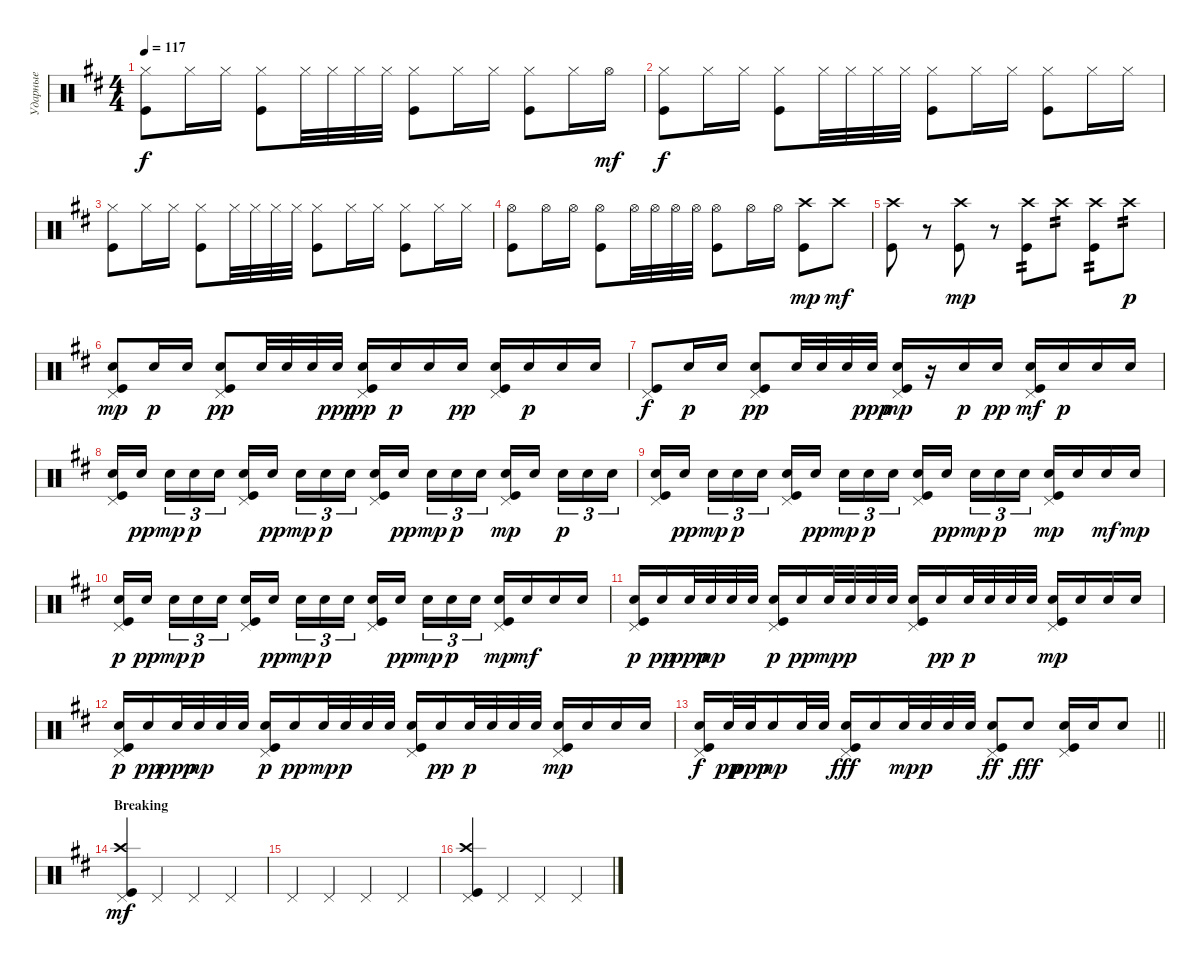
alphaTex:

\track ("Ударные" "Ударные") {instrument percussion}
\staff {score}
\articulation defaults
\ts (4 4)
\tempo 117
\clef neutral
\ks d
("Hi-Hat (closed)" "Kick (hit)").8{dy f} "Hi-Hat (closed)".16 "Hi-Hat (closed)".16 ("Hi-Hat (closed)" "Kick (hit)").8 "Hi-Hat (closed)".32 "Hi-Hat (closed)".32 "Hi-Hat (closed)".32 "Hi-Hat (closed)".32 ("Hi-Hat (closed)" "Kick (hit)").8 "Hi-Hat (closed)".16 "Hi-Hat (closed)".16 ("Hi-Hat (closed)" "Kick (hit)").8 "Hi-Hat (closed)".16 "Hi-Hat (open)".16{dy mf} |
("Hi-Hat (closed)" "Kick (hit)").8{dy f} "Hi-Hat (closed)".16 "Hi-Hat (closed)".16 ("Hi-Hat (closed)" "Kick (hit)").8 "Hi-Hat (closed)".32 "Hi-Hat (closed)".32 "Hi-Hat (closed)".32 "Hi-Hat (closed)".32 ("Hi-Hat (closed)" "Kick (hit)").8 "Hi-Hat (closed)".16 "Hi-Hat (closed)".16 ("Hi-Hat (closed)" "Kick (hit)").8 "Hi-Hat (closed)".16 "Hi-Hat (closed)".16 |
("Hi-Hat (closed)" "Kick (hit)").8 "Hi-Hat (closed)".16 "Hi-Hat (closed)".16 ("Hi-Hat (closed)" "Kick (hit)").8 "Hi-Hat (closed)".32 "Hi-Hat (closed)".32 "Hi-Hat (closed)".32 "Hi-Hat (closed)".32 ("Hi-Hat (closed)" "Kick (hit)").8 "Hi-Hat (closed)".16 "Hi-Hat (closed)".16 ("Hi-Hat (closed)" "Kick (hit)").8 "Hi-Hat (closed)".16 "Hi-Hat (closed)".16 |
("Hi-Hat (open)" "Kick (hit)").8 "Hi-Hat (open)".16 "Hi-Hat (open)".16 ("Kick (hit)" "Hi-Hat (open)").8 "Hi-Hat (open)".32 "Hi-Hat (open)".32 "Hi-Hat (open)".32 "Hi-Hat (open)".32 ("Hi-Hat (open)" "Kick (hit)").8 "Hi-Hat (open)".16 "Hi-Hat (open)".16 ("Crash high (hit)" "Kick (hit)").8{dy mp} "Crash high (hit)".8{dy mf} |
("Crash high (hit)" "Kick (hit)").8 r.8 ("Kick (hit)" "Crash high (hit)").8{dy mp} r.8 ("Kick (hit)" "Crash high (hit)").8{tp 2} "Crash high (hit)".8{tp 2} ("Crash high (hit)" "Kick (hit)").8{tp 2} "Crash high (hit)".8{tp 2 dy p} |
("Kick (hit)" "Pedal Hi-Hat (hit)" "Snare (hit) 2").8{dy mp} "Snare (hit) 2".16{dy p} "Snare (hit) 2".16 ("Kick (hit)" "Pedal Hi-Hat (hit)" "Snare (hit) 2").8{dy pp} "Snare (hit) 2".32 "Snare (hit) 2".32 "Snare (hit) 2".32 "Snare (hit) 2".32{dy ppp} ("Kick (hit)" "Pedal Hi-Hat (hit)" "Snare (hit) 2").16{dy pp} "Snare (hit) 2".16{dy p} "Snare (hit) 2".16 "Snare (hit) 2".16{dy pp} ("Kick (hit)" "Pedal Hi-Hat (hit)" "Snare (hit) 2").16 "Snare (hit) 2".16{dy p} "Snare (hit) 2".16 "Snare (hit) 2".16 |
("Kick (hit)" "Pedal Hi-Hat (hit)").8{dy f} "Snare (hit) 2".16{dy p} "Snare (hit) 2".16 ("Kick (hit)" "Pedal Hi-Hat (hit)" "Snare (hit) 2").8{dy pp} "Snare (hit) 2".32 "Snare (hit) 2".32 "Snare (hit) 2".32 "Snare (hit) 2".32{dy ppp} ("Kick (hit)" "Pedal Hi-Hat (hit)" "Snare (hit) 2").16{dy mp} r.16 "Snare (hit) 2".16{dy p} "Snare (hit) 2".16{dy pp} ("Kick (hit)" "Pedal Hi-Hat (hit)" "Snare (hit) 2").16{dy mf} "Snare (hit) 2".16{dy p} "Snare (hit) 2".16 "Snare (hit) 2".16 |
("Kick (hit)" "Pedal Hi-Hat (hit)" "Snare (hit) 2").16 "Snare (hit) 2".16{dy pp beam splitsecondary} "Snare (hit) 2".16{tu (3 2) dy mp} "Snare (hit) 2".16{tu (3 2) dy p} "Snare (hit) 2".16{tu (3 2)} ("Kick (hit)" "Pedal Hi-Hat (hit)" "Snare (hit) 2").16 "Snare (hit) 2".16{dy pp beam splitsecondary} "Snare (hit) 2".16{tu (3 2) dy mp} "Snare (hit) 2".16{tu (3 2) dy p} "Snare (hit) 2".16{tu (3 2)} ("Kick (hit)" "Pedal Hi-Hat (hit)" "Snare (hit) 2").16 "Snare (hit) 2".16{dy pp beam splitsecondary} "Snare (hit) 2".16{tu (3 2) dy mp} "Snare (hit) 2".16{tu (3 2) dy p} "Snare (hit) 2".16{tu (3 2)} ("Kick (hit)" "Pedal Hi-Hat (hit)" "Snare (hit) 2").16{dy mp} "Snare (hit) 2".16{beam splitsecondary} "Snare (hit) 2".16{tu (3 2) dy p} "Snare (hit) 2".16{tu (3 2)} "Snare (hit) 2".16{tu (3 2)} |
("Kick (hit)" "Pedal Hi-Hat (hit)" "Snare (hit) 2").16 "Snare (hit) 2".16{dy pp beam splitsecondary} "Snare (hit) 2".16{tu (3 2) dy mp} "Snare (hit) 2".16{tu (3 2) dy p} "Snare (hit) 2".16{tu (3 2)} ("Kick (hit)" "Pedal Hi-Hat (hit)" "Snare (hit) 2").16 "Snare (hit) 2".16{dy pp beam splitsecondary} "Snare (hit) 2".16{tu (3 2) dy mp} "Snare (hit) 2".16{tu (3 2) dy p} "Snare (hit) 2".16{tu (3 2)} ("Kick (hit)" "Pedal Hi-Hat (hit)" "Snare (hit) 2").16 "Snare (hit) 2".16{dy pp beam splitsecondary} "Snare (hit) 2".16{tu (3 2) dy mp} "Snare (hit) 2".16{tu (3 2) dy p} "Snare (hit) 2".16{tu (3 2)} ("Kick (hit)" "Pedal Hi-Hat (hit)" "Snare (hit) 2").16{dy mp} "Snare (hit) 2".16 "Snare (hit) 2".16{dy mf} "Snare (hit) 2".16{dy mp} |
("Kick (hit)" "Pedal Hi-Hat (hit)" "Snare (hit) 2").16{dy p} "Snare (hit) 2".16{dy pp beam splitsecondary} "Snare (hit) 2".16{tu (3 2) dy mp} "Snare (hit) 2".16{tu (3 2) dy p} "Snare (hit) 2".16{tu (3 2)} ("Kick (hit)" "Pedal Hi-Hat (hit)" "Snare (hit) 2").16 "Snare (hit) 2".16{dy pp beam splitsecondary} "Snare (hit) 2".16{tu (3 2) dy mp} "Snare (hit) 2".16{tu (3 2) dy p} "Snare (hit) 2".16{tu (3 2)} ("Kick (hit)" "Pedal Hi-Hat (hit)" "Snare (hit) 2").16 "Snare (hit) 2".16{dy pp beam splitsecondary} "Snare (hit) 2".16{tu (3 2) dy mp} "Snare (hit) 2".16{tu (3 2) dy p} "Snare (hit) 2".16{tu (3 2)} ("Kick (hit)" "Pedal Hi-Hat (hit)" "Snare (hit) 2").16{dy mp} "Snare (hit) 2".16{dy mf} "Snare (hit) 2".16 "Snare (hit) 2".16 |
("Kick (hit)" "Pedal Hi-Hat (hit)" "Snare (hit) 2").16{dy p} "Snare (hit) 2".16{dy pp} "Snare (hit) 2".32{dy ppp} "Snare (hit) 2".32{dy mp} "Snare (hit) 2".32 "Snare (hit) 2".32 ("Kick (hit)" "Pedal Hi-Hat (hit)" "Snare (hit) 2").16{dy p} "Snare (hit) 2".16{dy pp} "Snare (hit) 2".32{dy mp} "Snare (hit) 2".32{dy p} "Snare (hit) 2".32 "Snare (hit) 2".32 ("Kick (hit)" "Pedal Hi-Hat (hit)" "Snare (hit) 2").16 "Snare (hit) 2".16{dy pp} "Snare (hit) 2".32{dy p} "Snare (hit) 2".32 "Snare (hit) 2".32 "Snare (hit) 2".32 ("Kick (hit)" "Pedal Hi-Hat (hit)" "Snare (hit) 2").16{dy mp} "Snare (hit) 2".16 "Snare (hit) 2".16 "Snare (hit) 2".16 |
("Kick (hit)" "Pedal Hi-Hat (hit)" "Snare (hit) 2").16{dy p} "Snare (hit) 2".16{dy pp} "Snare (hit) 2".32{dy ppp} "Snare (hit) 2".32{dy mp} "Snare (hit) 2".32 "Snare (hit) 2".32 ("Kick (hit)" "Pedal Hi-Hat (hit)" "Snare (hit) 2").16{dy p} "Snare (hit) 2".16{dy pp} "Snare (hit) 2".32{dy mp} "Snare (hit) 2".32{dy p} "Snare (hit) 2".32 "Snare (hit) 2".32 ("Kick (hit)" "Pedal Hi-Hat (hit)" "Snare (hit) 2").16 "Snare (hit) 2".16{dy pp} "Snare (hit) 2".32{dy p} "Snare (hit) 2".32 "Snare (hit) 2".32 "Snare (hit) 2".32 ("Kick (hit)" "Pedal Hi-Hat (hit)" "Snare (hit) 2").16{dy mp} "Snare (hit) 2".16 "Snare (hit) 2".16 "Snare (hit) 2".16 |
\barLineRight lightlight
("Kick (hit)" "Pedal Hi-Hat (hit)" "Snare (hit) 2").16{dy f} "Snare (hit) 2".32{dy pp} "Snare (hit) 2".32{dy ppp} "Snare (hit) 2".16{dy mp} "Snare (hit) 2".32 "Snare (hit) 2".32 ("Kick (hit)" "Pedal Hi-Hat (hit)" "Snare (hit) 2").16{dy fff} "Snare (hit) 2".16 "Snare (hit) 2".32{dy mp} "Snare (hit) 2".32{dy p} "Snare (hit) 2".32 "Snare (hit) 2".32 ("Kick (hit)" "Pedal Hi-Hat (hit)" "Snare (hit) 2").8{dy ff} "Snare (hit) 2".8{dy fff} ("Kick (hit)" "Pedal Hi-Hat (hit)" "Snare (hit) 2").16 "Snare (hit) 2".16 "Snare (hit) 2".8 |
\section ("" "Breaking")
("Kick (hit)" "Crash high (hit)" "Pedal Hi-Hat (hit)").4{dy mf} "Pedal Hi-Hat (hit)".4 "Pedal Hi-Hat (hit)".4 "Pedal Hi-Hat (hit)".4 |
"Pedal Hi-Hat (hit)".4 "Pedal Hi-Hat (hit)".4 "Pedal Hi-Hat (hit)".4 "Pedal Hi-Hat (hit)".4 |
("Kick (hit)" "Crash high (hit)" "Pedal Hi-Hat (hit)").4 "Pedal Hi-Hat (hit)".4 "Pedal Hi-Hat (hit)".4 "Pedal Hi-Hat (hit)".4
